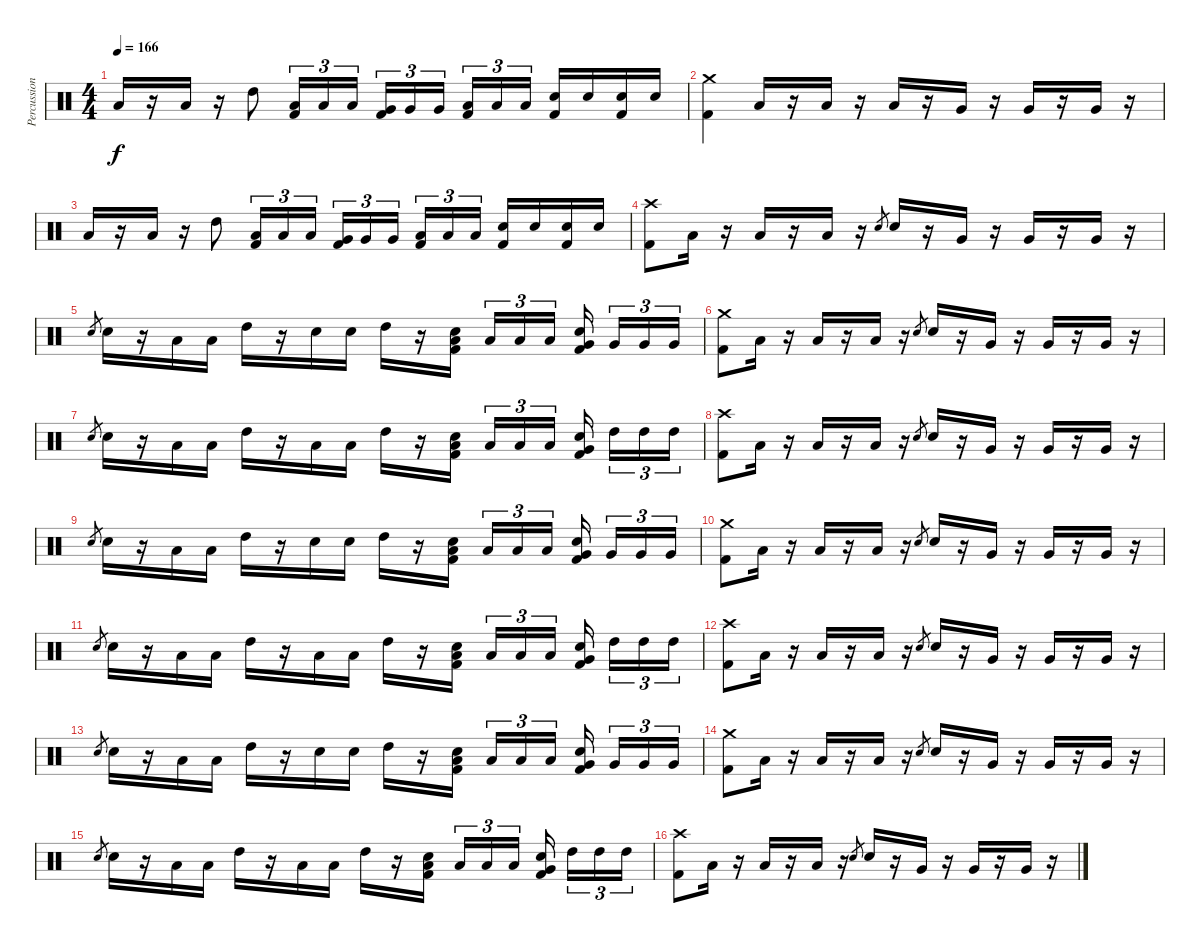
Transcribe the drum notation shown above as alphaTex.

\track ("Percussion" "Percussion") {instrument percussion}
\staff {score}
\articulation defaults
\ts (4 4)
\tempo 166
\clef neutral
\ks c "Low Tom (hit)".16{dy f}
r.16 "Low Tom (hit)".16 r.16 "High Tom (hit)".8 ("Low Floor Tom (hit)" "Kick (hit) 2").16{tu (3 2)} "Low Floor Tom (hit)".16{tu (3 2)} "Low Floor Tom (hit)".16{tu (3 2)} ("Very Low Tom (hit)" "Kick (hit) 2").16{tu (3 2)} "Very Low Tom (hit)".16{tu (3 2)} "Very Low Tom (hit)".16{tu (3 2)} ("Low Tom (hit)" "Kick (hit) 2").16{tu (3 2)} "Low Tom (hit)".16{tu (3 2)} "Low Tom (hit)".16{tu (3 2)} ("Snare (hit) 2" "Kick (hit) 2").16 "Snare (hit) 2".16 ("Snare (hit) 2" "Kick (hit) 2").16 "Snare (hit) 2".16 |
("Crash medium (hit)" "Kick (hit) 2").4 "Low Floor Tom (hit)".16 r.16 "Low Floor Tom (hit)".16 r.16 "Low Floor Tom (hit)".16 r.16 "Very Low Tom (hit)".16 r.16 "Very Low Tom (hit)".16 r.16 "Very Low Tom (hit)".16 r.16 |
"Low Tom (hit)".16 r.16 "Low Tom (hit)".16 r.16 "High Tom (hit)".8 ("Low Floor Tom (hit)" "Kick (hit) 2").16{tu (3 2)} "Low Floor Tom (hit)".16{tu (3 2)} "Low Floor Tom (hit)".16{tu (3 2)} ("Very Low Tom (hit)" "Kick (hit) 2").16{tu (3 2)} "Very Low Tom (hit)".16{tu (3 2)} "Very Low Tom (hit)".16{tu (3 2)} ("Low Tom (hit)" "Kick (hit) 2").16{tu (3 2)} "Low Tom (hit)".16{tu (3 2)} "Low Tom (hit)".16{tu (3 2)} ("Snare (hit) 2" "Kick (hit) 2").16 "Snare (hit) 2".16 ("Snare (hit) 2" "Kick (hit) 2").16 "Snare (hit) 2".16 |
("Crash high (hit)" "Kick (hit) 2").8 "Low Floor Tom (hit)".16 r.16 "Low Floor Tom (hit)".16 r.16 "Low Floor Tom (hit)".16 r.16 "Snare (hit) 2".8{gr} "Snare (hit) 2".16 r.16 "Very Low Tom (hit)".16 r.16 "Very Low Tom (hit)".16 r.16 "Very Low Tom (hit)".16 r.16 |
"Snare (hit) 2".8{gr} "Snare (hit) 2".16 r.16 "Low Tom (hit)".16 "Low Tom (hit)".16 "High Tom (hit)".16 r.16 "Snare (hit) 2".16 "Snare (hit) 2".16 "High Tom (hit)".16 r.16 ("Snare (hit) 2" "Low Floor Tom (hit)" "Kick (hit) 2").16 "Low Floor Tom (hit)".16{tu (3 2)} "Low Floor Tom (hit)".16{tu (3 2)} "Low Floor Tom (hit)".16{tu (3 2)} ("Snare (hit) 2" "Very Low Tom (hit)" "Kick (hit) 2").16 "Very Low Tom (hit)".16{tu (3 2)} "Very Low Tom (hit)".16{tu (3 2)} "Very Low Tom (hit)".16{tu (3 2)} |
("Crash medium (hit)" "Kick (hit) 2").8 "Low Floor Tom (hit)".16 r.16 "Low Floor Tom (hit)".16 r.16 "Low Floor Tom (hit)".16 r.16 "Snare (hit) 2".8{gr} "Snare (hit) 2".16 r.16 "Very Low Tom (hit)".16 r.16 "Very Low Tom (hit)".16 r.16 "Very Low Tom (hit)".16 r.16 |
"Snare (hit) 2".8{gr} "Snare (hit) 2".16 r.16 "Low Tom (hit)".16 "Low Tom (hit)".16 "High Tom (hit)".16 r.16 "Low Tom (hit)".16 "Low Tom (hit)".16 "High Tom (hit)".16 r.16 ("Low Floor Tom (hit)" "Snare (hit) 2" "Kick (hit) 2").16 "Low Tom (hit)".16{tu (3 2)} "Low Tom (hit)".16{tu (3 2)} "Low Tom (hit)".16{tu (3 2)} ("Very Low Tom (hit)" "Snare (hit) 2" "Kick (hit) 2").16 "High Tom (hit)".16{tu (3 2)} "High Tom (hit)".16{tu (3 2)} "High Tom (hit)".16{tu (3 2)} |
("Crash high (hit)" "Kick (hit) 2").8 "Low Floor Tom (hit)".16 r.16 "Low Floor Tom (hit)".16 r.16 "Low Floor Tom (hit)".16 r.16 "Snare (hit) 2".8{gr} "Snare (hit) 2".16 r.16 "Very Low Tom (hit)".16 r.16 "Very Low Tom (hit)".16 r.16 "Very Low Tom (hit)".16 r.16 |
"Snare (hit) 2".8{gr} "Snare (hit) 2".16 r.16 "Low Tom (hit)".16 "Low Tom (hit)".16 "High Tom (hit)".16 r.16 "Snare (hit) 2".16 "Snare (hit) 2".16 "High Tom (hit)".16 r.16 ("Snare (hit) 2" "Low Floor Tom (hit)" "Kick (hit) 2").16 "Low Floor Tom (hit)".16{tu (3 2)} "Low Floor Tom (hit)".16{tu (3 2)} "Low Floor Tom (hit)".16{tu (3 2)} ("Snare (hit) 2" "Very Low Tom (hit)" "Kick (hit) 2").16 "Very Low Tom (hit)".16{tu (3 2)} "Very Low Tom (hit)".16{tu (3 2)} "Very Low Tom (hit)".16{tu (3 2)} |
("Crash medium (hit)" "Kick (hit) 2").8 "Low Floor Tom (hit)".16 r.16 "Low Floor Tom (hit)".16 r.16 "Low Floor Tom (hit)".16 r.16 "Snare (hit) 2".8{gr} "Snare (hit) 2".16 r.16 "Very Low Tom (hit)".16 r.16 "Very Low Tom (hit)".16 r.16 "Very Low Tom (hit)".16 r.16 |
"Snare (hit) 2".8{gr} "Snare (hit) 2".16 r.16 "Low Tom (hit)".16 "Low Tom (hit)".16 "High Tom (hit)".16 r.16 "Low Tom (hit)".16 "Low Tom (hit)".16 "High Tom (hit)".16 r.16 ("Low Floor Tom (hit)" "Snare (hit) 2" "Kick (hit) 2").16 "Low Tom (hit)".16{tu (3 2)} "Low Tom (hit)".16{tu (3 2)} "Low Tom (hit)".16{tu (3 2)} ("Very Low Tom (hit)" "Snare (hit) 2" "Kick (hit) 2").16 "High Tom (hit)".16{tu (3 2)} "High Tom (hit)".16{tu (3 2)} "High Tom (hit)".16{tu (3 2)} |
("Crash high (hit)" "Kick (hit) 2").8 "Low Floor Tom (hit)".16 r.16 "Low Floor Tom (hit)".16 r.16 "Low Floor Tom (hit)".16 r.16 "Snare (hit) 2".8{gr} "Snare (hit) 2".16 r.16 "Very Low Tom (hit)".16 r.16 "Very Low Tom (hit)".16 r.16 "Very Low Tom (hit)".16 r.16 |
"Snare (hit) 2".8{gr} "Snare (hit) 2".16 r.16 "Low Tom (hit)".16 "Low Tom (hit)".16 "High Tom (hit)".16 r.16 "Snare (hit) 2".16 "Snare (hit) 2".16 "High Tom (hit)".16 r.16 ("Snare (hit) 2" "Low Floor Tom (hit)" "Kick (hit) 2").16 "Low Floor Tom (hit)".16{tu (3 2)} "Low Floor Tom (hit)".16{tu (3 2)} "Low Floor Tom (hit)".16{tu (3 2)} ("Snare (hit) 2" "Very Low Tom (hit)" "Kick (hit) 2").16 "Very Low Tom (hit)".16{tu (3 2)} "Very Low Tom (hit)".16{tu (3 2)} "Very Low Tom (hit)".16{tu (3 2)} |
("Crash medium (hit)" "Kick (hit) 2").8 "Low Floor Tom (hit)".16 r.16 "Low Floor Tom (hit)".16 r.16 "Low Floor Tom (hit)".16 r.16 "Snare (hit) 2".8{gr} "Snare (hit) 2".16 r.16 "Very Low Tom (hit)".16 r.16 "Very Low Tom (hit)".16 r.16 "Very Low Tom (hit)".16 r.16 |
"Snare (hit) 2".8{gr} "Snare (hit) 2".16 r.16 "Low Tom (hit)".16 "Low Tom (hit)".16 "High Tom (hit)".16 r.16 "Low Tom (hit)".16 "Low Tom (hit)".16 "High Tom (hit)".16 r.16 ("Low Floor Tom (hit)" "Snare (hit) 2" "Kick (hit) 2").16 "Low Tom (hit)".16{tu (3 2)} "Low Tom (hit)".16{tu (3 2)} "Low Tom (hit)".16{tu (3 2)} ("Very Low Tom (hit)" "Snare (hit) 2" "Kick (hit) 2").16 "High Tom (hit)".16{tu (3 2)} "High Tom (hit)".16{tu (3 2)} "High Tom (hit)".16{tu (3 2)} |
("Crash high (hit)" "Kick (hit) 2").8 "Low Floor Tom (hit)".16 r.16 "Low Floor Tom (hit)".16 r.16 "Low Floor Tom (hit)".16 r.16 "Snare (hit) 2".8{gr} "Snare (hit) 2".16 r.16 "Very Low Tom (hit)".16 r.16 "Very Low Tom (hit)".16 r.16 "Very Low Tom (hit)".16 r.16
